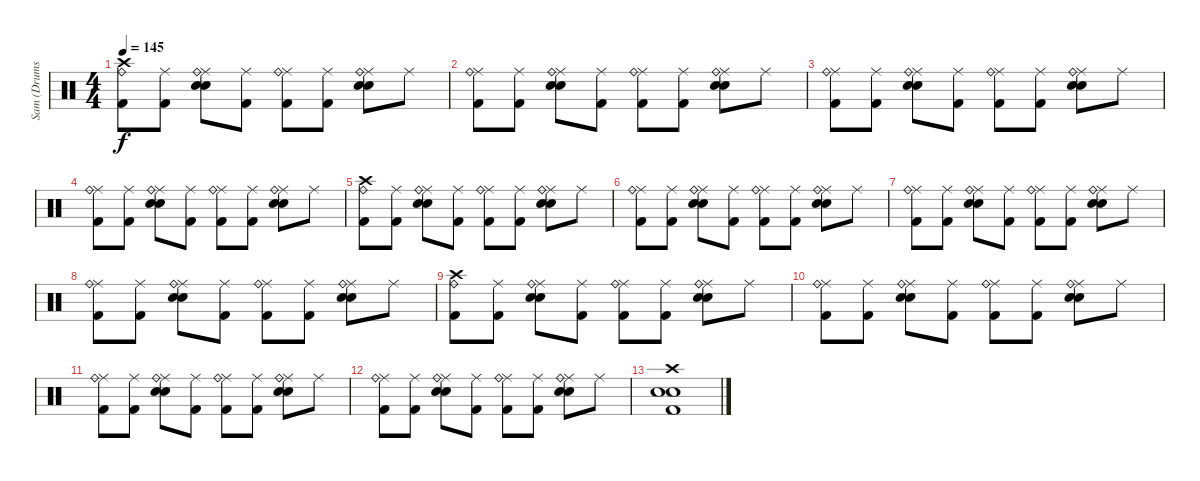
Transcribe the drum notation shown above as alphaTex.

\track ("Sam (Drums)" "Sam (Drums") {instrument percussion}
\staff {score}
\articulation defaults
\ts (4 4)
\tempo 145
\clef neutral
\ks c
("Crash high (hit)" "Ride (bell)" "Kick (hit) 2").8{dy f} ("Ride (middle)" "Kick (hit) 2").8 ("Ride (middle)" "Ride (bell)" "Electric Snare (hit)" "Snare (hit) 2").8 ("Ride (middle)" "Kick (hit) 2").8 ("Ride (middle)" "Ride (bell)" "Kick (hit) 2").8 ("Ride (middle)" "Kick (hit) 2").8 ("Ride (middle)" "Ride (bell)" "Electric Snare (hit)" "Snare (hit) 2").8 "Ride (middle)".8 |
("Ride (middle)" "Ride (bell)" "Kick (hit) 2").8 ("Ride (middle)" "Kick (hit) 2").8 ("Ride (middle)" "Ride (bell)" "Electric Snare (hit)" "Snare (hit) 2").8 ("Ride (middle)" "Kick (hit) 2").8 ("Ride (middle)" "Ride (bell)" "Kick (hit) 2").8 ("Ride (middle)" "Kick (hit) 2").8 ("Ride (middle)" "Ride (bell)" "Electric Snare (hit)" "Snare (hit) 2").8 "Ride (middle)".8 |
("Ride (middle)" "Ride (bell)" "Kick (hit) 2").8 ("Ride (middle)" "Kick (hit) 2").8 ("Ride (middle)" "Ride (bell)" "Electric Snare (hit)" "Snare (hit) 2").8 ("Ride (middle)" "Kick (hit) 2").8 ("Ride (middle)" "Ride (bell)" "Kick (hit) 2").8 ("Ride (middle)" "Kick (hit) 2").8 ("Ride (middle)" "Ride (bell)" "Electric Snare (hit)" "Snare (hit) 2").8 "Ride (middle)".8 |
("Ride (middle)" "Ride (bell)" "Kick (hit) 2").8 ("Ride (middle)" "Kick (hit) 2").8 ("Ride (middle)" "Ride (bell)" "Electric Snare (hit)" "Snare (hit) 2").8 ("Ride (middle)" "Kick (hit) 2").8 ("Ride (middle)" "Ride (bell)" "Kick (hit) 2").8 ("Ride (middle)" "Kick (hit) 2").8 ("Ride (middle)" "Ride (bell)" "Electric Snare (hit)" "Snare (hit) 2").8 "Ride (middle)".8 |
("Crash high (hit)" "Ride (bell)" "Kick (hit) 2").8 ("Ride (middle)" "Kick (hit) 2").8 ("Ride (middle)" "Ride (bell)" "Electric Snare (hit)" "Snare (hit) 2").8 ("Ride (middle)" "Kick (hit) 2").8 ("Ride (middle)" "Ride (bell)" "Kick (hit) 2").8 ("Ride (middle)" "Kick (hit) 2").8 ("Ride (middle)" "Ride (bell)" "Electric Snare (hit)" "Snare (hit) 2").8 "Ride (middle)".8 |
("Ride (middle)" "Ride (bell)" "Kick (hit) 2").8 ("Ride (middle)" "Kick (hit) 2").8 ("Ride (middle)" "Ride (bell)" "Electric Snare (hit)" "Snare (hit) 2").8 ("Ride (middle)" "Kick (hit) 2").8 ("Ride (middle)" "Ride (bell)" "Kick (hit) 2").8 ("Ride (middle)" "Kick (hit) 2").8 ("Ride (middle)" "Ride (bell)" "Electric Snare (hit)" "Snare (hit) 2").8 "Ride (middle)".8 |
("Ride (middle)" "Ride (bell)" "Kick (hit) 2").8 ("Ride (middle)" "Kick (hit) 2").8 ("Ride (middle)" "Ride (bell)" "Electric Snare (hit)" "Snare (hit) 2").8 ("Ride (middle)" "Kick (hit) 2").8 ("Ride (middle)" "Ride (bell)" "Kick (hit) 2").8 ("Ride (middle)" "Kick (hit) 2").8 ("Ride (middle)" "Ride (bell)" "Electric Snare (hit)" "Snare (hit) 2").8 "Ride (middle)".8 |
("Ride (middle)" "Ride (bell)" "Kick (hit) 2").8 ("Ride (middle)" "Kick (hit) 2").8 ("Ride (middle)" "Ride (bell)" "Electric Snare (hit)" "Snare (hit) 2").8 ("Ride (middle)" "Kick (hit) 2").8 ("Ride (middle)" "Ride (bell)" "Kick (hit) 2").8 ("Ride (middle)" "Kick (hit) 2").8 ("Ride (middle)" "Ride (bell)" "Electric Snare (hit)" "Snare (hit) 2").8 "Ride (middle)".8 |
("Crash high (hit)" "Ride (bell)" "Kick (hit) 2").8 ("Ride (middle)" "Kick (hit) 2").8 ("Ride (middle)" "Ride (bell)" "Electric Snare (hit)" "Snare (hit) 2").8 ("Ride (middle)" "Kick (hit) 2").8 ("Ride (middle)" "Ride (bell)" "Kick (hit) 2").8 ("Ride (middle)" "Kick (hit) 2").8 ("Ride (middle)" "Ride (bell)" "Electric Snare (hit)" "Snare (hit) 2").8 "Ride (middle)".8 |
("Ride (middle)" "Ride (bell)" "Kick (hit) 2").8 ("Ride (middle)" "Kick (hit) 2").8 ("Ride (middle)" "Ride (bell)" "Electric Snare (hit)" "Snare (hit) 2").8 ("Ride (middle)" "Kick (hit) 2").8 ("Ride (middle)" "Ride (bell)" "Kick (hit) 2").8 ("Ride (middle)" "Kick (hit) 2").8 ("Ride (middle)" "Ride (bell)" "Electric Snare (hit)" "Snare (hit) 2").8 "Ride (middle)".8 |
("Ride (middle)" "Ride (bell)" "Kick (hit) 2").8 ("Ride (middle)" "Kick (hit) 2").8 ("Ride (middle)" "Ride (bell)" "Electric Snare (hit)" "Snare (hit) 2").8 ("Ride (middle)" "Kick (hit) 2").8 ("Ride (middle)" "Ride (bell)" "Kick (hit) 2").8 ("Ride (middle)" "Kick (hit) 2").8 ("Ride (middle)" "Ride (bell)" "Electric Snare (hit)" "Snare (hit) 2").8 "Ride (middle)".8 |
("Ride (middle)" "Ride (bell)" "Kick (hit) 2").8 ("Ride (middle)" "Kick (hit) 2").8 ("Ride (middle)" "Ride (bell)" "Electric Snare (hit)" "Snare (hit) 2").8 ("Ride (middle)" "Kick (hit) 2").8 ("Ride (middle)" "Ride (bell)" "Kick (hit) 2").8 ("Ride (middle)" "Kick (hit) 2").8 ("Ride (middle)" "Ride (bell)" "Electric Snare (hit)" "Snare (hit) 2").8 "Ride (middle)".8 |
("Crash high (hit)" "Electric Snare (hit)" "Snare (hit) 2" "Kick (hit) 2").1
